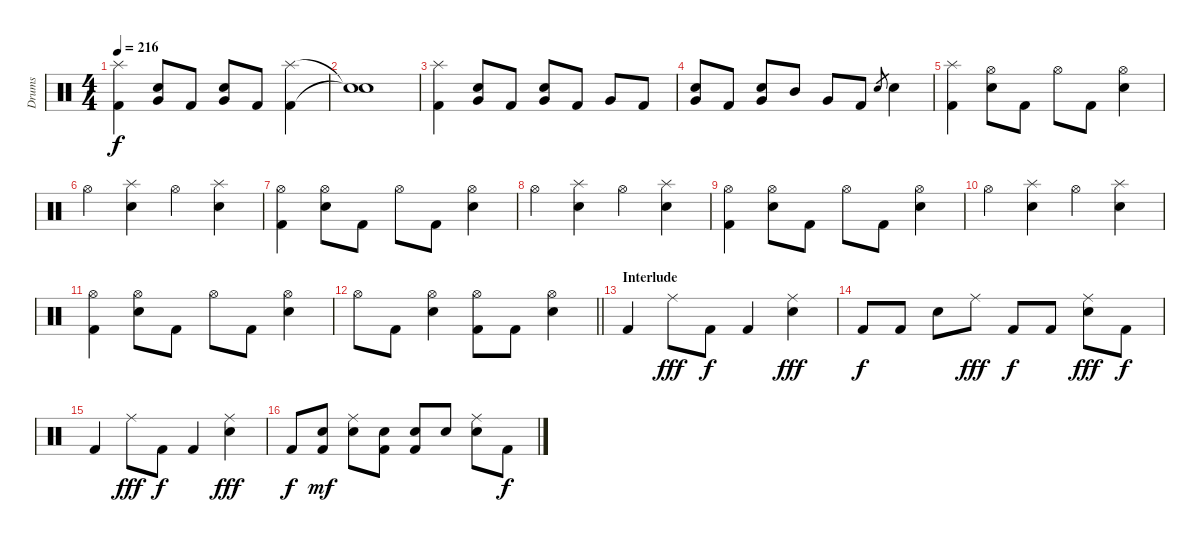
\track ("Drums" "Drums") {instrument percussion}
\staff {score}
\articulation defaults
\ts (4 4)
\tempo 216
\clef neutral
\ks c
("Splash (hit)" "Kick (hit) 2").4{dy f} ("Very Low Tom (hit)" "Electric Snare (hit)").8 "Kick (hit) 2".8 ("Very Low Tom (hit)" "Electric Snare (hit)").8 "Kick (hit) 2".8 ("Splash (hit)" "Kick (hit) 2").4 |
("Snare (hit)"{t} "Snare (hit)"{t}).1 |
("Splash (hit)" "Kick (hit) 2").4 ("Very Low Tom (hit)" "Electric Snare (hit)").8 "Kick (hit) 2".8 ("Very Low Tom (hit)" "Electric Snare (hit)").8 "Kick (hit) 2".8 "Very Low Tom (hit)".8 "Kick (hit) 2".8 |
("Very Low Tom (hit)" "Electric Snare (hit)").8 "Kick (hit) 2".8 ("Very Low Tom (hit)" "Electric Snare (hit)").8 "Mid Tom (hit)".8 "Very Low Tom (hit)".8 "Kick (hit) 2".8 "Electric Snare (hit)".8{gr} "Electric Snare (hit)".4 |
("Splash (hit)" "Kick (hit) 2").4 ("Hi-Hat (open)" "Electric Snare (hit)").8 "Kick (hit) 2".8 "Hi-Hat (open)".8 "Kick (hit) 2".8 ("Hi-Hat (open)" "Electric Snare (hit)").4 |
"Hi-Hat (open)".4 ("Splash (hit)" "Electric Snare (hit)").4 "Hi-Hat (open)".4 ("Splash (hit)" "Electric Snare (hit)").4 |
("Hi-Hat (open)" "Kick (hit) 2").4 ("Hi-Hat (open)" "Electric Snare (hit)").8 "Kick (hit) 2".8 "Hi-Hat (open)".8 "Kick (hit) 2".8 ("Hi-Hat (open)" "Electric Snare (hit)").4 |
"Hi-Hat (open)".4 ("Splash (hit)" "Electric Snare (hit)").4 "Hi-Hat (open)".4 ("Splash (hit)" "Electric Snare (hit)").4 |
("Hi-Hat (open)" "Kick (hit) 2").4 ("Hi-Hat (open)" "Electric Snare (hit)").8 "Kick (hit) 2".8 "Hi-Hat (open)".8 "Kick (hit) 2".8 ("Hi-Hat (open)" "Electric Snare (hit)").4 |
"Hi-Hat (open)".4 ("Splash (hit)" "Electric Snare (hit)").4 "Hi-Hat (open)".4 ("Splash (hit)" "Electric Snare (hit)").4 |
("Hi-Hat (open)" "Kick (hit) 2").4 ("Hi-Hat (open)" "Electric Snare (hit)").8 "Kick (hit) 2".8 "Hi-Hat (open)".8 "Kick (hit) 2".8 ("Hi-Hat (open)" "Electric Snare (hit)").4 |
\barLineRight lightlight "Hi-Hat (open)".8 "Kick (hit) 2".8
("Hi-Hat (open)" "Electric Snare (hit)").4 ("Hi-Hat (open)" "Kick (hit) 2").8 "Kick (hit) 2".8 ("Hi-Hat (open)" "Electric Snare (hit)").4 |
\section ("" "Interlude")
"Kick (hit) 2".4 "Ride (middle)".8{dy fff} "Kick (hit) 2".8{dy f} "Kick (hit) 2".4 ("Ride (middle)" "Electric Snare (hit)").4{dy fff} |
"Kick (hit) 2".8{dy f} "Kick (hit) 2".8 "Electric Snare (hit)".8 "Ride (middle)".8{dy fff} "Kick (hit) 2".8{dy f} "Kick (hit) 2".8 ("Ride (middle)" "Electric Snare (hit)").8{dy fff} "Kick (hit) 2".8{dy f} |
"Kick (hit) 2".4 "Ride (middle)".8{dy fff} "Kick (hit) 2".8{dy f} "Kick (hit) 2".4 ("Ride (middle)" "Electric Snare (hit)").4{dy fff} |
"Kick (hit) 2".8{dy f} ("Electric Snare (hit)" "Kick (hit) 2").8{dy mf} ("Ride (middle)" "Electric Snare (hit)").8 ("Electric Snare (hit)" "Kick (hit) 2").8 ("Electric Snare (hit)" "Kick (hit) 2").8 "Electric Snare (hit)".8 ("Ride (middle)" "Electric Snare (hit)").8 "Kick (hit) 2".8{dy f}
